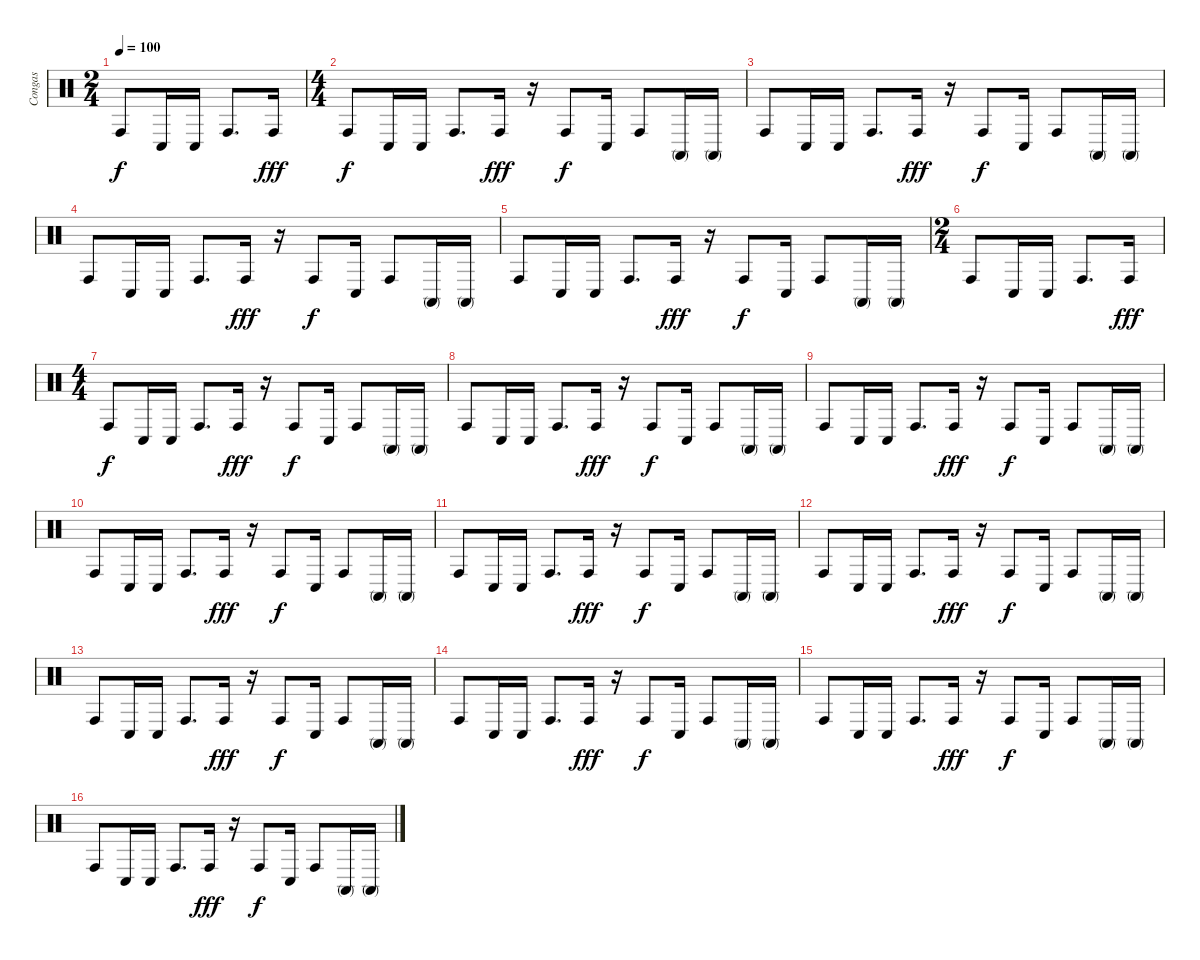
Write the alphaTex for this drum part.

\track ("Congas" "Congas") {instrument percussion}
\staff {score}
\articulation defaults
\ts (2 4)
\tempo 100
\clef neutral
\ks c "Conga high (hit)".8{dy f} "Conga low (hit)".16 "Conga low (hit)".16 "Conga high (hit)".8{d} "Conga high (hit)".16{dy fff}
|
\ts (4 4)
"Conga high (hit)".8{dy f} "Conga low (hit)".16 "Conga low (hit)".16 "Conga high (hit)".8{d} "Conga high (hit)".16{dy fff} r.16 "Conga high (hit)".8{dy f} "Conga low (hit)".16 "Conga high (hit)".8 "Conga high (mute)".16 "Conga high (mute)".16 |
"Conga high (hit)".8 "Conga low (hit)".16 "Conga low (hit)".16 "Conga high (hit)".8{d} "Conga high (hit)".16{dy fff} r.16 "Conga high (hit)".8{dy f} "Conga low (hit)".16 "Conga high (hit)".8 "Conga high (mute)".16 "Conga high (mute)".16 |
"Conga high (hit)".8 "Conga low (hit)".16 "Conga low (hit)".16 "Conga high (hit)".8{d} "Conga high (hit)".16{dy fff} r.16 "Conga high (hit)".8{dy f} "Conga low (hit)".16 "Conga high (hit)".8 "Conga high (mute)".16 "Conga high (mute)".16 |
"Conga high (hit)".8 "Conga low (hit)".16 "Conga low (hit)".16 "Conga high (hit)".8{d} "Conga high (hit)".16{dy fff} r.16 "Conga high (hit)".8{dy f} "Conga low (hit)".16 "Conga high (hit)".8 "Conga high (mute)".16 "Conga high (mute)".16 |
\ts (2 4)
"Conga high (hit)".8 "Conga low (hit)".16 "Conga low (hit)".16 "Conga high (hit)".8{d} "Conga high (hit)".16{dy fff} |
\ts (4 4)
"Conga high (hit)".8{dy f} "Conga low (hit)".16 "Conga low (hit)".16 "Conga high (hit)".8{d} "Conga high (hit)".16{dy fff} r.16 "Conga high (hit)".8{dy f} "Conga low (hit)".16 "Conga high (hit)".8 "Conga high (mute)".16 "Conga high (mute)".16 |
"Conga high (hit)".8 "Conga low (hit)".16 "Conga low (hit)".16 "Conga high (hit)".8{d} "Conga high (hit)".16{dy fff} r.16 "Conga high (hit)".8{dy f} "Conga low (hit)".16 "Conga high (hit)".8 "Conga high (mute)".16 "Conga high (mute)".16 |
"Conga high (hit)".8 "Conga low (hit)".16 "Conga low (hit)".16 "Conga high (hit)".8{d} "Conga high (hit)".16{dy fff} r.16 "Conga high (hit)".8{dy f} "Conga low (hit)".16 "Conga high (hit)".8 "Conga high (mute)".16 "Conga high (mute)".16 |
"Conga high (hit)".8 "Conga low (hit)".16 "Conga low (hit)".16 "Conga high (hit)".8{d} "Conga high (hit)".16{dy fff} r.16 "Conga high (hit)".8{dy f} "Conga low (hit)".16 "Conga high (hit)".8 "Conga high (mute)".16 "Conga high (mute)".16 |
"Conga high (hit)".8 "Conga low (hit)".16 "Conga low (hit)".16 "Conga high (hit)".8{d} "Conga high (hit)".16{dy fff} r.16 "Conga high (hit)".8{dy f} "Conga low (hit)".16 "Conga high (hit)".8 "Conga high (mute)".16 "Conga high (mute)".16 |
"Conga high (hit)".8 "Conga low (hit)".16 "Conga low (hit)".16 "Conga high (hit)".8{d} "Conga high (hit)".16{dy fff} r.16 "Conga high (hit)".8{dy f} "Conga low (hit)".16 "Conga high (hit)".8 "Conga high (mute)".16 "Conga high (mute)".16 |
"Conga high (hit)".8 "Conga low (hit)".16 "Conga low (hit)".16 "Conga high (hit)".8{d} "Conga high (hit)".16{dy fff} r.16 "Conga high (hit)".8{dy f} "Conga low (hit)".16 "Conga high (hit)".8 "Conga high (mute)".16 "Conga high (mute)".16 |
"Conga high (hit)".8 "Conga low (hit)".16 "Conga low (hit)".16 "Conga high (hit)".8{d} "Conga high (hit)".16{dy fff} r.16 "Conga high (hit)".8{dy f} "Conga low (hit)".16 "Conga high (hit)".8 "Conga high (mute)".16 "Conga high (mute)".16 |
"Conga high (hit)".8 "Conga low (hit)".16 "Conga low (hit)".16 "Conga high (hit)".8{d} "Conga high (hit)".16{dy fff} r.16 "Conga high (hit)".8{dy f} "Conga low (hit)".16 "Conga high (hit)".8 "Conga high (mute)".16 "Conga high (mute)".16 |
"Conga high (hit)".8 "Conga low (hit)".16 "Conga low (hit)".16 "Conga high (hit)".8{d} "Conga high (hit)".16{dy fff} r.16 "Conga high (hit)".8{dy f} "Conga low (hit)".16 "Conga high (hit)".8 "Conga high (mute)".16 "Conga high (mute)".16
